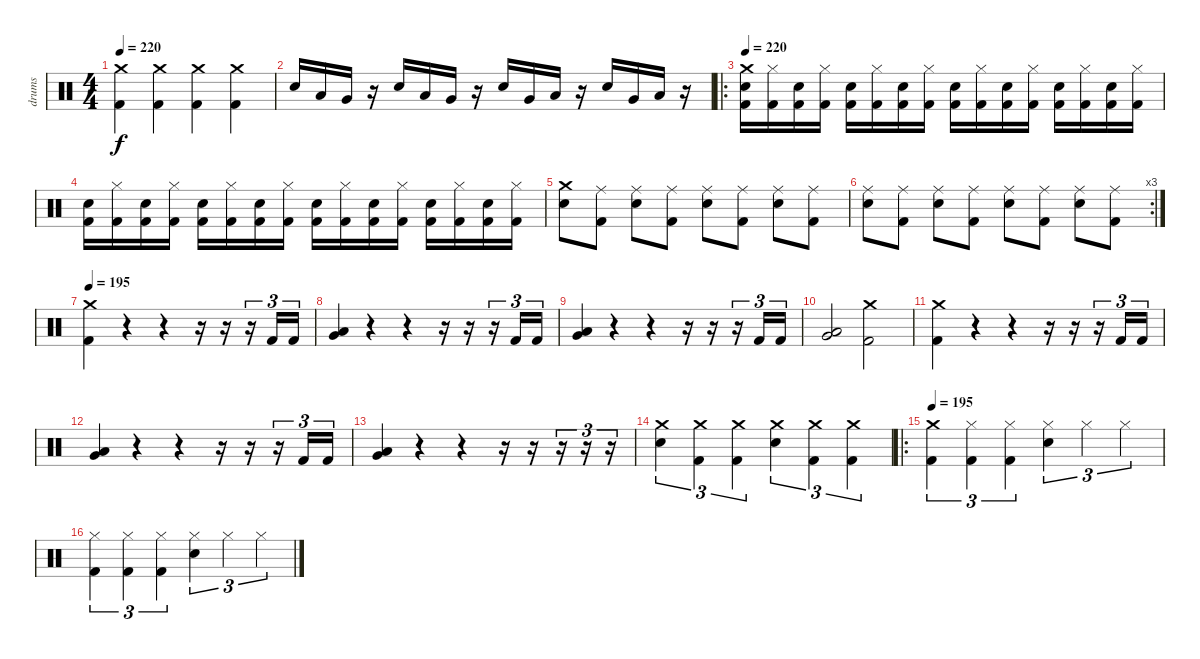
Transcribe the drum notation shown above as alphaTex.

\track ("drums" "drums") {instrument percussion}
\staff {score}
\articulation defaults
\ts (4 4)
\tempo 220
\clef neutral
\ks c
("Crash medium (hit)" "Kick (hit) 2").4{dy f} ("Crash medium (hit)" "Kick (hit) 2").4 ("Crash medium (hit)" "Kick (hit) 2").4 ("Crash medium (hit)" "Kick (hit) 2").4 |
"Snare (hit) 2".16 "Low Tom (hit)".16 "Very Low Tom (hit)".16 r.16 "Snare (hit) 2".16 "Low Tom (hit)".16 "Very Low Tom (hit)".16 r.16 "Snare (hit) 2".16 "Very Low Tom (hit)".16 "Low Floor Tom (hit)".16 r.16 "Snare (hit) 2".16 "Very Low Tom (hit)".16 "Low Floor Tom (hit)".16 r.16 |
\ro
\tempo 220
("Crash medium (hit)" "Snare (hit) 2" "Kick (hit) 2").16 ("Hi-Hat (closed)" "Kick (hit) 2").16 ("Snare (hit) 2" "Kick (hit) 2").16 ("Hi-Hat (closed)" "Kick (hit) 2").16 ("Snare (hit) 2" "Kick (hit) 2").16 ("Hi-Hat (closed)" "Kick (hit) 2").16 ("Snare (hit) 2" "Kick (hit) 2").16 ("Hi-Hat (closed)" "Kick (hit) 2").16 ("Snare (hit) 2" "Kick (hit) 2").16 ("Hi-Hat (closed)" "Kick (hit) 2").16 ("Snare (hit) 2" "Kick (hit) 2").16 ("Hi-Hat (closed)" "Kick (hit) 2").16 ("Snare (hit) 2" "Kick (hit) 2").16 ("Hi-Hat (closed)" "Kick (hit) 2").16 ("Snare (hit) 2" "Kick (hit) 2").16 ("Hi-Hat (closed)" "Kick (hit) 2").16 |
("Snare (hit) 2" "Kick (hit) 2").16 ("Hi-Hat (closed)" "Kick (hit) 2").16 ("Snare (hit) 2" "Kick (hit) 2").16 ("Hi-Hat (closed)" "Kick (hit) 2").16 ("Snare (hit) 2" "Kick (hit) 2").16 ("Hi-Hat (closed)" "Kick (hit) 2").16 ("Snare (hit) 2" "Kick (hit) 2").16 ("Hi-Hat (closed)" "Kick (hit) 2").16 ("Snare (hit) 2" "Kick (hit) 2").16 ("Hi-Hat (closed)" "Kick (hit) 2").16 ("Snare (hit) 2" "Kick (hit) 2").16 ("Hi-Hat (closed)" "Kick (hit) 2").16 ("Snare (hit) 2" "Kick (hit) 2").16 ("Hi-Hat (closed)" "Kick (hit) 2").16 ("Snare (hit) 2" "Kick (hit) 2").16 ("Hi-Hat (closed)" "Kick (hit) 2").16 |
("Crash medium (hit)" "Snare (hit) 2").8 ("Ride (middle)" "Kick (hit) 2").8 ("Ride (middle)" "Snare (hit) 2").8 ("Ride (middle)" "Kick (hit) 2").8 ("Ride (middle)" "Snare (hit) 2").8 ("Ride (middle)" "Kick (hit) 2").8 ("Ride (middle)" "Snare (hit) 2").8 ("Ride (middle)" "Kick (hit) 2").8 |
\rc 3
("Ride (middle)" "Snare (hit) 2").8 ("Ride (middle)" "Kick (hit) 2").8 ("Ride (middle)" "Snare (hit) 2").8 ("Ride (middle)" "Kick (hit) 2").8 ("Ride (middle)" "Snare (hit) 2").8 ("Ride (middle)" "Kick (hit) 2").8 ("Ride (middle)" "Snare (hit) 2").8 ("Ride (middle)" "Kick (hit) 2").8 |
\tempo 195
("Crash medium (hit)" "Kick (hit) 2").4 r.4 r.4 r.16 r.16 r.16{tu (3 2)} "Kick (hit) 2".16{tu (3 2)} "Kick (hit) 2".16{tu (3 2)} |
("Low Floor Tom (hit)" "Very Low Tom (hit)").4 r.4 r.4 r.16 r.16 r.16{tu (3 2)} "Kick (hit) 2".16{tu (3 2)} "Kick (hit) 2".16{tu (3 2)} |
("Low Floor Tom (hit)" "Very Low Tom (hit)").4 r.4 r.4 r.16 r.16 r.16{tu (3 2)} "Kick (hit) 2".16{tu (3 2)} "Kick (hit) 2".16{tu (3 2)} |
("Low Floor Tom (hit)" "Very Low Tom (hit)").2 ("Crash medium (hit)" "Kick (hit) 2").2 |
("Crash medium (hit)" "Kick (hit) 2").4 r.4 r.4 r.16 r.16 r.16{tu (3 2)} "Kick (hit) 2".16{tu (3 2)} "Kick (hit) 2".16{tu (3 2)} |
("Low Floor Tom (hit)" "Very Low Tom (hit)").4 r.4 r.4 r.16 r.16 r.16{tu (3 2)} "Kick (hit) 2".16{tu (3 2)} "Kick (hit) 2".16{tu (3 2)} |
("Low Floor Tom (hit)" "Very Low Tom (hit)").4 r.4 r.4 r.16 r.16 r.16{tu (3 2)} r.16{tu (3 2)} r.16{tu (3 2)} |
("Crash medium (hit)" "Snare (hit) 2").4{tu (3 2)} ("Crash medium (hit)" "Kick (hit) 2").4{tu (3 2)} ("Crash medium (hit)" "Kick (hit) 2").4{tu (3 2)} ("Crash medium (hit)" "Snare (hit) 2").4{tu (3 2)} ("Crash medium (hit)" "Kick (hit) 2").4{tu (3 2)} ("Crash medium (hit)" "Kick (hit) 2").4{tu (3 2)} |
\ro
\tempo 195
("Crash medium (hit)" "Kick (hit) 2").4{tu (3 2)} ("Hi-Hat (closed)" "Kick (hit) 2").4{tu (3 2)} ("Hi-Hat (closed)" "Kick (hit) 2").4{tu (3 2)} ("Hi-Hat (closed)" "Snare (hit) 2").4{tu (3 2)} "Hi-Hat (closed)".4{tu (3 2)} "Hi-Hat (closed)".4{tu (3 2)} |
("Hi-Hat (closed)" "Kick (hit) 2").4{tu (3 2)} ("Hi-Hat (closed)" "Kick (hit) 2").4{tu (3 2)} ("Hi-Hat (closed)" "Kick (hit) 2").4{tu (3 2)} ("Hi-Hat (closed)" "Snare (hit) 2").4{tu (3 2)} "Hi-Hat (closed)".4{tu (3 2)} "Hi-Hat (closed)".4{tu (3 2)}
